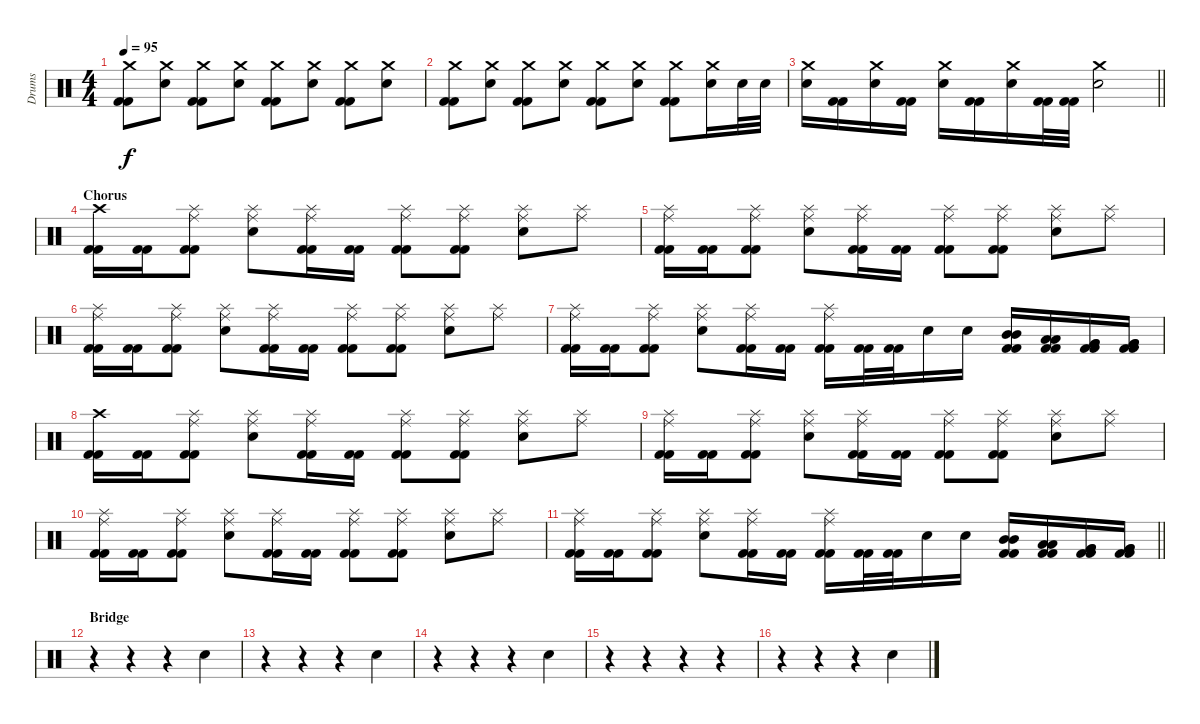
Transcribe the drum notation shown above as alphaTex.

\track ("Drums" "Drums") {instrument percussion}
\staff {score}
\articulation defaults
\ts (4 4)
\tempo 95
\clef neutral
\ks c
("Crash medium (hit)" "Kick (hit) 2" "Kick (hit) 2").8{dy f} ("Crash medium (hit)" "Electric Snare (hit)").8 ("Crash medium (hit)" "Kick (hit) 2" "Kick (hit) 2").8 ("Crash medium (hit)" "Electric Snare (hit)").8 ("Crash medium (hit)" "Kick (hit) 2" "Kick (hit) 2").8 ("Crash medium (hit)" "Electric Snare (hit)").8 ("Crash medium (hit)" "Kick (hit) 2" "Kick (hit) 2").8 ("Crash medium (hit)" "Electric Snare (hit)").8 |
("Crash medium (hit)" "Kick (hit) 2" "Kick (hit) 2").8 ("Crash medium (hit)" "Electric Snare (hit)").8 ("Crash medium (hit)" "Kick (hit) 2" "Kick (hit) 2").8 ("Crash medium (hit)" "Electric Snare (hit)").8 ("Crash medium (hit)" "Kick (hit) 2" "Kick (hit) 2").8 ("Crash medium (hit)" "Electric Snare (hit)").8 ("Crash medium (hit)" "Kick (hit) 2" "Kick (hit) 2").8 ("Crash medium (hit)" "Electric Snare (hit)").16 "Electric Snare (hit)".32 "Electric Snare (hit)".32 |
\barLineRight lightlight
("Crash medium (hit)" "Electric Snare (hit)").16 ("Kick (hit) 2" "Kick (hit) 2").16 ("Crash medium (hit)" "Electric Snare (hit)").16 ("Kick (hit) 2" "Kick (hit) 2").16 ("Crash medium (hit)" "Electric Snare (hit)").16 ("Kick (hit) 2" "Kick (hit) 2").16 ("Crash medium (hit)" "Electric Snare (hit)").16 ("Kick (hit) 2" "Kick (hit) 2").32 ("Kick (hit) 2" "Kick (hit) 2").32 ("Crash medium (hit)" "Electric Snare (hit)").2 |
\section ("" "Chorus")
("Crash high (hit)" "Kick (hit) 2" "Kick (hit) 2").16 ("Kick (hit) 2" "Kick (hit) 2").16 ("Ride (middle)" "Splash (hit)" "Kick (hit) 2" "Kick (hit) 2").8 ("Ride (middle)" "Splash (hit)" "Electric Snare (hit)").8 ("Ride (middle)" "Splash (hit)" "Kick (hit) 2" "Kick (hit) 2").16 ("Kick (hit) 2" "Kick (hit) 2").16 ("Ride (middle)" "Splash (hit)" "Kick (hit) 2" "Kick (hit) 2").8 ("Ride (middle)" "Splash (hit)" "Kick (hit) 2" "Kick (hit) 2").8 ("Ride (middle)" "Splash (hit)" "Electric Snare (hit)").8 ("Ride (middle)" "Splash (hit)").8 |
("Ride (middle)" "Splash (hit)" "Kick (hit) 2" "Kick (hit) 2").16 ("Kick (hit) 2" "Kick (hit) 2").16 ("Ride (middle)" "Splash (hit)" "Kick (hit) 2" "Kick (hit) 2").8 ("Ride (middle)" "Splash (hit)" "Electric Snare (hit)").8 ("Ride (middle)" "Splash (hit)" "Kick (hit) 2" "Kick (hit) 2").16 ("Kick (hit) 2" "Kick (hit) 2").16 ("Ride (middle)" "Splash (hit)" "Kick (hit) 2" "Kick (hit) 2").8 ("Ride (middle)" "Splash (hit)" "Kick (hit) 2" "Kick (hit) 2").8 ("Ride (middle)" "Splash (hit)" "Electric Snare (hit)").8 ("Ride (middle)" "Splash (hit)").8 |
("Ride (middle)" "Splash (hit)" "Kick (hit) 2" "Kick (hit) 2").16 ("Kick (hit) 2" "Kick (hit) 2").16 ("Ride (middle)" "Splash (hit)" "Kick (hit) 2" "Kick (hit) 2").8 ("Ride (middle)" "Splash (hit)" "Electric Snare (hit)").8 ("Ride (middle)" "Splash (hit)" "Kick (hit) 2" "Kick (hit) 2").16 ("Kick (hit) 2" "Kick (hit) 2").16 ("Ride (middle)" "Splash (hit)" "Kick (hit) 2" "Kick (hit) 2").8 ("Ride (middle)" "Splash (hit)" "Kick (hit) 2" "Kick (hit) 2").8 ("Ride (middle)" "Splash (hit)" "Electric Snare (hit)").8 ("Ride (middle)" "Splash (hit)").8 |
("Ride (middle)" "Splash (hit)" "Kick (hit) 2" "Kick (hit) 2").16 ("Kick (hit) 2" "Kick (hit) 2").16 ("Ride (middle)" "Splash (hit)" "Kick (hit) 2" "Kick (hit) 2").8 ("Ride (middle)" "Splash (hit)" "Electric Snare (hit)").8 ("Ride (middle)" "Splash (hit)" "Kick (hit) 2" "Kick (hit) 2").16 ("Kick (hit) 2" "Kick (hit) 2").16 ("Ride (middle)" "Splash (hit)" "Kick (hit) 2" "Kick (hit) 2").16 ("Kick (hit) 2" "Kick (hit) 2").32 ("Kick (hit) 2" "Kick (hit) 2").32 "Electric Snare (hit)".16 "Electric Snare (hit)".16 ("Mid Tom (hit)" "Mid Tom (hit)" "Kick (hit) 2" "Kick (hit) 2").16 ("Low Tom (hit)" "Low Tom (hit)" "Kick (hit) 2" "Kick (hit) 2").16 ("Very Low Tom (hit)" "Very Low Tom (hit)" "Kick (hit) 2" "Kick (hit) 2").16 ("Very Low Tom (hit)" "Very Low Tom (hit)" "Kick (hit) 2" "Kick (hit) 2").16 |
("Crash high (hit)" "Kick (hit) 2" "Kick (hit) 2").16 ("Kick (hit) 2" "Kick (hit) 2").16 ("Ride (middle)" "Splash (hit)" "Kick (hit) 2" "Kick (hit) 2").8 ("Ride (middle)" "Splash (hit)" "Snare (hit) 2").8 ("Ride (middle)" "Splash (hit)" "Kick (hit) 2" "Kick (hit) 2").16 ("Kick (hit) 2" "Kick (hit) 2").16 ("Ride (middle)" "Splash (hit)" "Kick (hit) 2" "Kick (hit) 2").8 ("Ride (middle)" "Splash (hit)" "Kick (hit) 2" "Kick (hit) 2").8 ("Ride (middle)" "Splash (hit)" "Snare (hit) 2").8 ("Ride (middle)" "Splash (hit)").8 |
("Ride (middle)" "Splash (hit)" "Kick (hit) 2" "Kick (hit) 2").16 ("Kick (hit) 2" "Kick (hit) 2").16 ("Ride (middle)" "Splash (hit)" "Kick (hit) 2" "Kick (hit) 2").8 ("Ride (middle)" "Splash (hit)" "Snare (hit) 2").8 ("Ride (middle)" "Splash (hit)" "Kick (hit) 2" "Kick (hit) 2").16 ("Kick (hit) 2" "Kick (hit) 2").16 ("Ride (middle)" "Splash (hit)" "Kick (hit) 2" "Kick (hit) 2").8 ("Ride (middle)" "Splash (hit)" "Kick (hit) 2" "Kick (hit) 2").8 ("Ride (middle)" "Splash (hit)" "Snare (hit) 2").8 ("Ride (middle)" "Splash (hit)").8 |
("Ride (middle)" "Splash (hit)" "Kick (hit) 2" "Kick (hit) 2").16 ("Kick (hit) 2" "Kick (hit) 2").16 ("Ride (middle)" "Splash (hit)" "Kick (hit) 2" "Kick (hit) 2").8 ("Ride (middle)" "Splash (hit)" "Snare (hit) 2").8 ("Ride (middle)" "Splash (hit)" "Kick (hit) 2" "Kick (hit) 2").16 ("Kick (hit) 2" "Kick (hit) 2").16 ("Ride (middle)" "Splash (hit)" "Kick (hit) 2" "Kick (hit) 2").8 ("Ride (middle)" "Splash (hit)" "Kick (hit) 2" "Kick (hit) 2").8 ("Ride (middle)" "Splash (hit)" "Snare (hit) 2").8 ("Ride (middle)" "Splash (hit)").8 |
\barLineRight lightlight
("Ride (middle)" "Splash (hit)" "Kick (hit) 2" "Kick (hit) 2").16 ("Kick (hit) 2" "Kick (hit) 2").16 ("Ride (middle)" "Splash (hit)" "Kick (hit) 2" "Kick (hit) 2").8 ("Ride (middle)" "Splash (hit)" "Snare (hit) 2").8 ("Ride (middle)" "Splash (hit)" "Kick (hit) 2" "Kick (hit) 2").16 ("Kick (hit) 2" "Kick (hit) 2").16 ("Ride (middle)" "Splash (hit)" "Kick (hit) 2" "Kick (hit) 2").16 ("Kick (hit) 2" "Kick (hit) 2").32 ("Kick (hit) 2" "Kick (hit) 2").32 "Electric Snare (hit)".16 "Electric Snare (hit)".16 ("Mid Tom (hit)" "Mid Tom (hit)" "Kick (hit) 2" "Kick (hit) 2").16 ("Low Tom (hit)" "Low Tom (hit)" "Kick (hit) 2" "Kick (hit) 2").16 ("Very Low Tom (hit)" "Very Low Tom (hit)" "Kick (hit) 2" "Kick (hit) 2").16 ("Very Low Tom (hit)" "Very Low Tom (hit)" "Kick (hit) 2" "Kick (hit) 2").16 |
\section ("" "Bridge")
r.4 r.4 r.4 "Snare (hit) 2".4 |
r.4 r.4 r.4 "Snare (hit) 2".4 |
r.4 r.4 r.4 "Snare (hit) 2".4 |
r.4 r.4 r.4 r.4 |
r.4 r.4 r.4 "Snare (hit) 2".4
